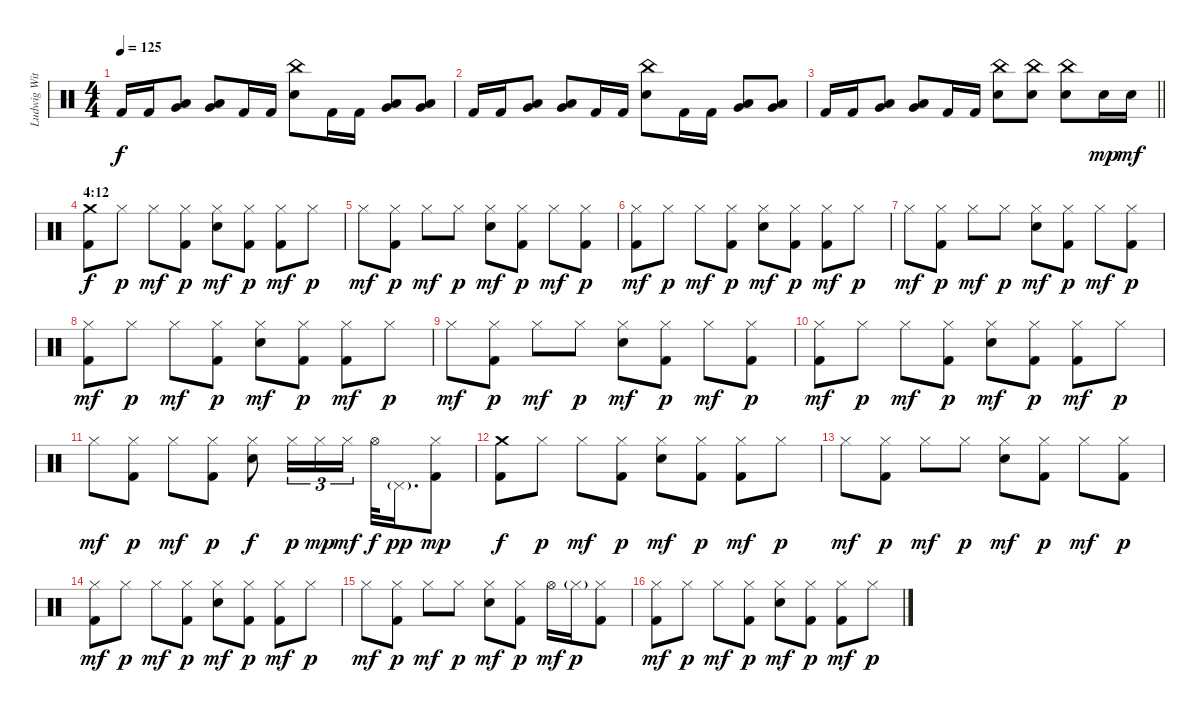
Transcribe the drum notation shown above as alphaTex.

\track ("Ludwig Witt" "Ludwig Wit") {instrument percussion}
\staff {score}
\articulation defaults
\ts (4 4)
\tempo 125
\clef neutral
\ks c "Kick (hit) 2".16{dy f} "Kick (hit) 2".16
("Low Tom (hit)" "Very Low Tom (hit)").8 ("Very Low Tom (hit)" "Low Floor Tom (hit)").8 "Kick (hit) 2".16 "Kick (hit) 2".16 ("China (hit)" "Electric Snare (hit)").8 "Kick (hit) 2".16 "Kick (hit) 2".16 ("Low Tom (hit)" "Very Low Tom (hit)").8 ("Very Low Tom (hit)" "Low Floor Tom (hit)").8 |
"Kick (hit) 2".16 "Kick (hit) 2".16 ("Low Tom (hit)" "Very Low Tom (hit)").8 ("Very Low Tom (hit)" "Low Floor Tom (hit)").8 "Kick (hit) 2".16 "Kick (hit) 2".16 ("China (hit)" "Electric Snare (hit)").8 "Kick (hit) 2".16 "Kick (hit) 2".16 ("Low Tom (hit)" "Very Low Tom (hit)").8 ("Very Low Tom (hit)" "Low Floor Tom (hit)").8 |
\barLineRight lightlight "Kick (hit) 2".16 "Kick (hit) 2".16
("Low Tom (hit)" "Very Low Tom (hit)").8 ("Very Low Tom (hit)" "Low Floor Tom (hit)").8 "Kick (hit) 2".16 "Kick (hit) 2".16 ("China (hit)" "Electric Snare (hit)").8 ("China (hit)" "Electric Snare (hit)").8 ("China (hit)" "Electric Snare (hit)").8 "Electric Snare (hit)".16{dy mp} "Electric Snare (hit)".16{dy mf} |
\section ("" "4:12")
("Crash medium (hit)" "Kick (hit) 2").8{dy f} "Hi-Hat (closed)".8{dy p} "Hi-Hat (closed)".8{dy mf} ("Hi-Hat (closed)" "Kick (hit) 2").8{dy p} ("Hi-Hat (closed)" "Electric Snare (hit)").8{dy mf} ("Hi-Hat (closed)" "Kick (hit) 2").8{dy p} ("Hi-Hat (closed)" "Kick (hit) 2").8{dy mf} "Hi-Hat (closed)".8{dy p} |
"Hi-Hat (closed)".8{dy mf} ("Hi-Hat (closed)" "Kick (hit) 2").8{dy p} "Hi-Hat (closed)".8{dy mf} "Hi-Hat (closed)".8{dy p} ("Hi-Hat (closed)" "Electric Snare (hit)").8{dy mf} ("Hi-Hat (closed)" "Kick (hit) 2").8{dy p} "Hi-Hat (closed)".8{dy mf} ("Hi-Hat (closed)" "Kick (hit) 2").8{dy p} |
("Hi-Hat (closed)" "Kick (hit) 2").8{dy mf} "Hi-Hat (closed)".8{dy p} "Hi-Hat (closed)".8{dy mf} ("Hi-Hat (closed)" "Kick (hit) 2").8{dy p} ("Hi-Hat (closed)" "Electric Snare (hit)").8{dy mf} ("Hi-Hat (closed)" "Kick (hit) 2").8{dy p} ("Hi-Hat (closed)" "Kick (hit) 2").8{dy mf} "Hi-Hat (closed)".8{dy p} |
"Hi-Hat (closed)".8{dy mf} ("Hi-Hat (closed)" "Kick (hit) 2").8{dy p} "Hi-Hat (closed)".8{dy mf} "Hi-Hat (closed)".8{dy p} ("Hi-Hat (closed)" "Electric Snare (hit)").8{dy mf} ("Hi-Hat (closed)" "Kick (hit) 2").8{dy p} "Hi-Hat (closed)".8{dy mf} ("Hi-Hat (closed)" "Kick (hit) 2").8{dy p} |
("Hi-Hat (closed)" "Kick (hit) 2").8{dy mf} "Hi-Hat (closed)".8{dy p} "Hi-Hat (closed)".8{dy mf} ("Hi-Hat (closed)" "Kick (hit) 2").8{dy p} ("Hi-Hat (closed)" "Electric Snare (hit)").8{dy mf} ("Hi-Hat (closed)" "Kick (hit) 2").8{dy p} ("Hi-Hat (closed)" "Kick (hit) 2").8{dy mf} "Hi-Hat (closed)".8{dy p} |
"Hi-Hat (closed)".8{dy mf} ("Hi-Hat (closed)" "Kick (hit) 2").8{dy p} "Hi-Hat (closed)".8{dy mf} "Hi-Hat (closed)".8{dy p} ("Hi-Hat (closed)" "Electric Snare (hit)").8{dy mf} ("Hi-Hat (closed)" "Kick (hit) 2").8{dy p} "Hi-Hat (closed)".8{dy mf} ("Hi-Hat (closed)" "Kick (hit) 2").8{dy p} |
("Hi-Hat (closed)" "Kick (hit) 2").8{dy mf} "Hi-Hat (closed)".8{dy p} "Hi-Hat (closed)".8{dy mf} ("Hi-Hat (closed)" "Kick (hit) 2").8{dy p} ("Hi-Hat (closed)" "Electric Snare (hit)").8{dy mf} ("Hi-Hat (closed)" "Kick (hit) 2").8{dy p} ("Hi-Hat (closed)" "Kick (hit) 2").8{dy mf} "Hi-Hat (closed)".8{dy p} |
"Hi-Hat (closed)".8{dy mf} ("Hi-Hat (closed)" "Kick (hit) 2").8{dy p} "Hi-Hat (closed)".8{dy mf} ("Hi-Hat (closed)" "Kick (hit) 2").8{dy p} ("Hi-Hat (closed)" "Electric Snare (hit)").8{dy f} "Hi-Hat (closed)".16{tu (3 2) dy p} "Hi-Hat (closed)".16{tu (3 2) dy mp} "Hi-Hat (closed)".16{tu (3 2) dy mf} "Hi-Hat (open)".32{dy f} "Pedal Hi-Hat (hit)"{g}.16{d dy pp} ("Hi-Hat (closed)" "Kick (hit) 2").8{dy mp} |
("Crash medium (hit)" "Kick (hit) 2").8{dy f} "Hi-Hat (closed)".8{dy p} "Hi-Hat (closed)".8{dy mf} ("Hi-Hat (closed)" "Kick (hit) 2").8{dy p} ("Hi-Hat (closed)" "Electric Snare (hit)").8{dy mf} ("Hi-Hat (closed)" "Kick (hit) 2").8{dy p} ("Hi-Hat (closed)" "Kick (hit) 2").8{dy mf} "Hi-Hat (closed)".8{dy p} |
"Hi-Hat (closed)".8{dy mf} ("Hi-Hat (closed)" "Kick (hit) 2").8{dy p} "Hi-Hat (closed)".8{dy mf} "Hi-Hat (closed)".8{dy p} ("Hi-Hat (closed)" "Electric Snare (hit)").8{dy mf} ("Hi-Hat (closed)" "Kick (hit) 2").8{dy p} "Hi-Hat (closed)".8{dy mf} ("Hi-Hat (closed)" "Kick (hit) 2").8{dy p} |
("Hi-Hat (closed)" "Kick (hit) 2").8{dy mf} "Hi-Hat (closed)".8{dy p} "Hi-Hat (closed)".8{dy mf} ("Hi-Hat (closed)" "Kick (hit) 2").8{dy p} ("Hi-Hat (closed)" "Electric Snare (hit)").8{dy mf} ("Hi-Hat (closed)" "Kick (hit) 2").8{dy p} ("Hi-Hat (closed)" "Kick (hit) 2").8{dy mf} "Hi-Hat (closed)".8{dy p} |
"Hi-Hat (closed)".8{dy mf} ("Hi-Hat (closed)" "Kick (hit) 2").8{dy p} "Hi-Hat (closed)".8{dy mf} "Hi-Hat (closed)".8{dy p} ("Hi-Hat (closed)" "Electric Snare (hit)").8{dy mf} ("Hi-Hat (closed)" "Kick (hit) 2").8{dy p} "Hi-Hat (open)".16{dy mf} "Hi-Hat (closed)"{g}.16{dy p} ("Hi-Hat (closed)" "Kick (hit) 2").8 |
("Hi-Hat (closed)" "Kick (hit) 2").8{dy mf} "Hi-Hat (closed)".8{dy p} "Hi-Hat (closed)".8{dy mf} ("Hi-Hat (closed)" "Kick (hit) 2").8{dy p} ("Hi-Hat (closed)" "Electric Snare (hit)").8{dy mf} ("Hi-Hat (closed)" "Kick (hit) 2").8{dy p} ("Hi-Hat (closed)" "Kick (hit) 2").8{dy mf} "Hi-Hat (closed)".8{dy p}
